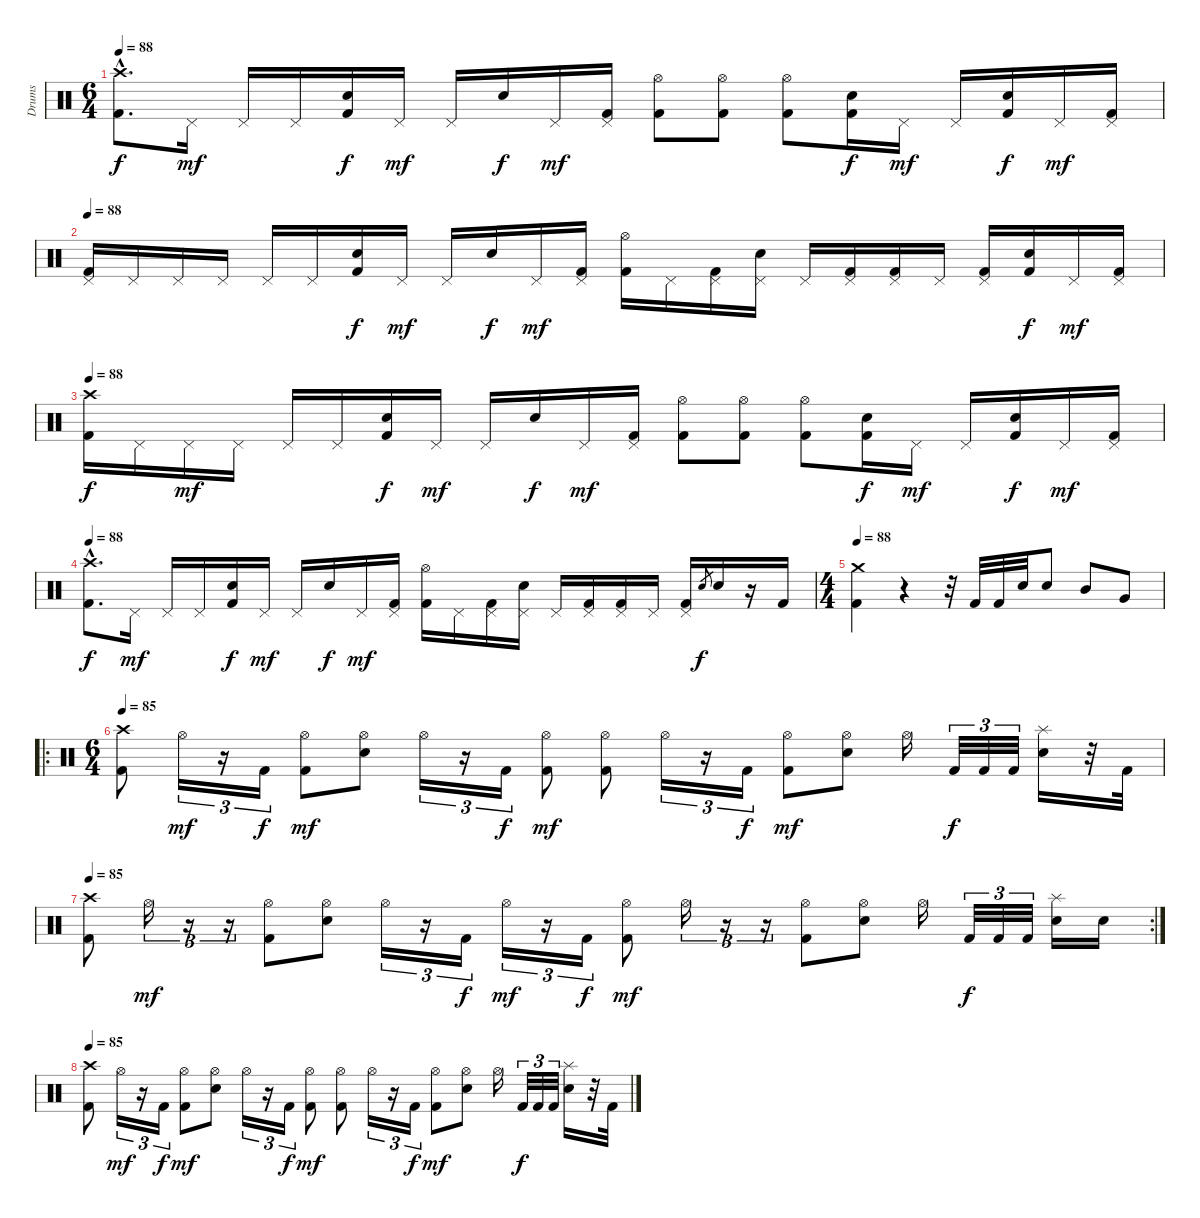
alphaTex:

\track ("Drums" "Drums") {instrument percussion}
\staff {score}
\articulation defaults
\ts (6 4)
\tempo 88
\clef neutral
\ks c
("Crash high (hit)"{hac} "Kick (hit) 2"{hac}).8{d dy f} "Pedal Hi-Hat (hit)".16{dy mf} "Pedal Hi-Hat (hit)".16 "Pedal Hi-Hat (hit)".16 ("Electric Snare (hit)" "Kick (hit) 2").16{dy f} "Pedal Hi-Hat (hit)".16{dy mf} "Pedal Hi-Hat (hit)".16 "Electric Snare (hit)".16{dy f} "Pedal Hi-Hat (hit)".16{dy mf} ("Pedal Hi-Hat (hit)" "Kick (hit) 2").16 ("Hi-Hat (open)" "Kick (hit) 2").8 ("Hi-Hat (open)" "Kick (hit) 2").8 ("Hi-Hat (open)" "Kick (hit) 2").8 ("Electric Snare (hit)" "Kick (hit) 2").16{dy f} "Pedal Hi-Hat (hit)".16{dy mf} "Pedal Hi-Hat (hit)".16 ("Electric Snare (hit)" "Kick (hit) 2").16{dy f} "Pedal Hi-Hat (hit)".16{dy mf} ("Pedal Hi-Hat (hit)" "Kick (hit) 2").16 |
\tempo 88
("Pedal Hi-Hat (hit)" "Kick (hit) 2").16 "Pedal Hi-Hat (hit)".16 "Pedal Hi-Hat (hit)".16 "Pedal Hi-Hat (hit)".16 "Pedal Hi-Hat (hit)".16 "Pedal Hi-Hat (hit)".16 ("Electric Snare (hit)" "Kick (hit) 2").16{dy f} "Pedal Hi-Hat (hit)".16{dy mf} "Pedal Hi-Hat (hit)".16 "Electric Snare (hit)".16{dy f} "Pedal Hi-Hat (hit)".16{dy mf} ("Pedal Hi-Hat (hit)" "Kick (hit) 2").16 ("Hi-Hat (open)" "Kick (hit) 2").16 "Pedal Hi-Hat (hit)".16 ("Pedal Hi-Hat (hit)" "Kick (hit) 2").16 ("Pedal Hi-Hat (hit)" "Electric Snare (hit)").16 "Pedal Hi-Hat (hit)".16 ("Pedal Hi-Hat (hit)" "Kick (hit) 2").16 ("Pedal Hi-Hat (hit)" "Kick (hit) 2").16 "Pedal Hi-Hat (hit)".16 ("Pedal Hi-Hat (hit)" "Kick (hit) 2").16 ("Electric Snare (hit)" "Kick (hit) 2").16{dy f} "Pedal Hi-Hat (hit)".16{dy mf} ("Pedal Hi-Hat (hit)" "Kick (hit) 2").16 |
\tempo 88
("Crash high (hit)" "Kick (hit) 2").16{dy f} "Pedal Hi-Hat (hit)".16 "Pedal Hi-Hat (hit)".16{dy mf} "Pedal Hi-Hat (hit)".16 "Pedal Hi-Hat (hit)".16 "Pedal Hi-Hat (hit)".16 ("Electric Snare (hit)" "Kick (hit) 2").16{dy f} "Pedal Hi-Hat (hit)".16{dy mf} "Pedal Hi-Hat (hit)".16 "Electric Snare (hit)".16{dy f} "Pedal Hi-Hat (hit)".16{dy mf} ("Pedal Hi-Hat (hit)" "Kick (hit) 2").16 ("Hi-Hat (open)" "Kick (hit) 2").8 ("Hi-Hat (open)" "Kick (hit) 2").8 ("Hi-Hat (open)" "Kick (hit) 2").8 ("Electric Snare (hit)" "Kick (hit) 2").16{dy f} "Pedal Hi-Hat (hit)".16{dy mf} "Pedal Hi-Hat (hit)".16 ("Electric Snare (hit)" "Kick (hit) 2").16{dy f} "Pedal Hi-Hat (hit)".16{dy mf} ("Pedal Hi-Hat (hit)" "Kick (hit) 2").16 |
\tempo 88
("Crash high (hit)"{hac} "Kick (hit) 2"{hac}).8{d dy f} "Pedal Hi-Hat (hit)".16{dy mf} "Pedal Hi-Hat (hit)".16 "Pedal Hi-Hat (hit)".16 ("Electric Snare (hit)" "Kick (hit) 2").16{dy f} "Pedal Hi-Hat (hit)".16{dy mf} "Pedal Hi-Hat (hit)".16 "Electric Snare (hit)".16{dy f} "Pedal Hi-Hat (hit)".16{dy mf} ("Pedal Hi-Hat (hit)" "Kick (hit) 2").16 ("Hi-Hat (open)" "Kick (hit) 2").16 "Pedal Hi-Hat (hit)".16 ("Pedal Hi-Hat (hit)" "Kick (hit) 2").16 ("Pedal Hi-Hat (hit)" "Electric Snare (hit)").16 "Pedal Hi-Hat (hit)".16 ("Pedal Hi-Hat (hit)" "Kick (hit) 2").16 ("Pedal Hi-Hat (hit)" "Kick (hit) 2").16 "Pedal Hi-Hat (hit)".16 ("Pedal Hi-Hat (hit)" "Kick (hit) 2").16 "Electric Snare (hit)".8{gr dy f} "Electric Snare (hit)".16 r.16 "Kick (hit) 2".16 |
\ts (4 4)
\tempo 88
("Crash medium (hit)" "Kick (hit) 2").4 r.4 r.32 "Kick (hit) 2".32 "Kick (hit) 2".32 "Electric Snare (hit)".32 "Electric Snare (hit)".8 "Mid Tom (hit)".8 "Very Low Tom (hit)".8 |
\ro
\ts (6 4)
\tempo 85
("Crash high (hit)" "Kick (hit) 2").8 "Hi-Hat (open)".16{tu (3 2) dy mf} r.16{tu (3 2)} "Kick (hit) 2".16{tu (3 2) dy f} ("Hi-Hat (open)" "Kick (hit) 2").8{dy mf} ("Hi-Hat (open)" "Electric Snare (hit)").8 "Hi-Hat (open)".16{tu (3 2)} r.16{tu (3 2)} "Kick (hit) 2".16{tu (3 2) dy f} ("Hi-Hat (open)" "Kick (hit) 2").8{dy mf} ("Hi-Hat (open)" "Kick (hit) 2").8 "Hi-Hat (open)".16{tu (3 2)} r.16{tu (3 2)} "Kick (hit) 2".16{tu (3 2) dy f} ("Hi-Hat (open)" "Kick (hit) 2").8{dy mf} ("Hi-Hat (open)" "Electric Snare (hit)").8 "Hi-Hat (open)".16 "Kick (hit) 2".32{tu (3 2) dy f} "Kick (hit) 2".32{tu (3 2)} "Kick (hit) 2".32{tu (3 2)} ("Splash (hit)" "Electric Snare (hit)").16 r.32 "Kick (hit) 2".32 |
\rc 2
\tempo 85
("Crash high (hit)" "Kick (hit) 2").8 "Hi-Hat (open)".16{tu (3 2) dy mf} r.16{tu (3 2)} r.16{tu (3 2)} ("Hi-Hat (open)" "Kick (hit) 2").8 ("Hi-Hat (open)" "Electric Snare (hit)").8 "Hi-Hat (open)".16{tu (3 2)} r.16{tu (3 2)} "Kick (hit) 2".16{tu (3 2) dy f} "Hi-Hat (open)".16{tu (3 2) dy mf} r.16{tu (3 2)} "Kick (hit) 2".16{tu (3 2) dy f} ("Hi-Hat (open)" "Kick (hit) 2").8{dy mf} "Hi-Hat (open)".16{tu (3 2)} r.16{tu (3 2)} r.16{tu (3 2)} ("Hi-Hat (open)" "Kick (hit) 2").8 ("Hi-Hat (open)" "Electric Snare (hit)").8 "Hi-Hat (open)".16 "Kick (hit) 2".32{tu (3 2) dy f} "Kick (hit) 2".32{tu (3 2)} "Kick (hit) 2".32{tu (3 2)} ("Splash (hit)" "Electric Snare (hit)").16 "Electric Snare (hit)".16 |
\tempo 85
("Crash high (hit)" "Kick (hit) 2").8 "Hi-Hat (open)".16{tu (3 2) dy mf} r.16{tu (3 2)} "Kick (hit) 2".16{tu (3 2) dy f} ("Hi-Hat (open)" "Kick (hit) 2").8{dy mf} ("Hi-Hat (open)" "Electric Snare (hit)").8 "Hi-Hat (open)".16{tu (3 2)} r.16{tu (3 2)} "Kick (hit) 2".16{tu (3 2) dy f} ("Hi-Hat (open)" "Kick (hit) 2").8{dy mf} ("Hi-Hat (open)" "Kick (hit) 2").8 "Hi-Hat (open)".16{tu (3 2)} r.16{tu (3 2)} "Kick (hit) 2".16{tu (3 2) dy f} ("Hi-Hat (open)" "Kick (hit) 2").8{dy mf} ("Hi-Hat (open)" "Electric Snare (hit)").8 "Hi-Hat (open)".16 "Kick (hit) 2".32{tu (3 2) dy f} "Kick (hit) 2".32{tu (3 2)} "Kick (hit) 2".32{tu (3 2)} ("Splash (hit)" "Electric Snare (hit)").16 r.32 "Kick (hit) 2".32
